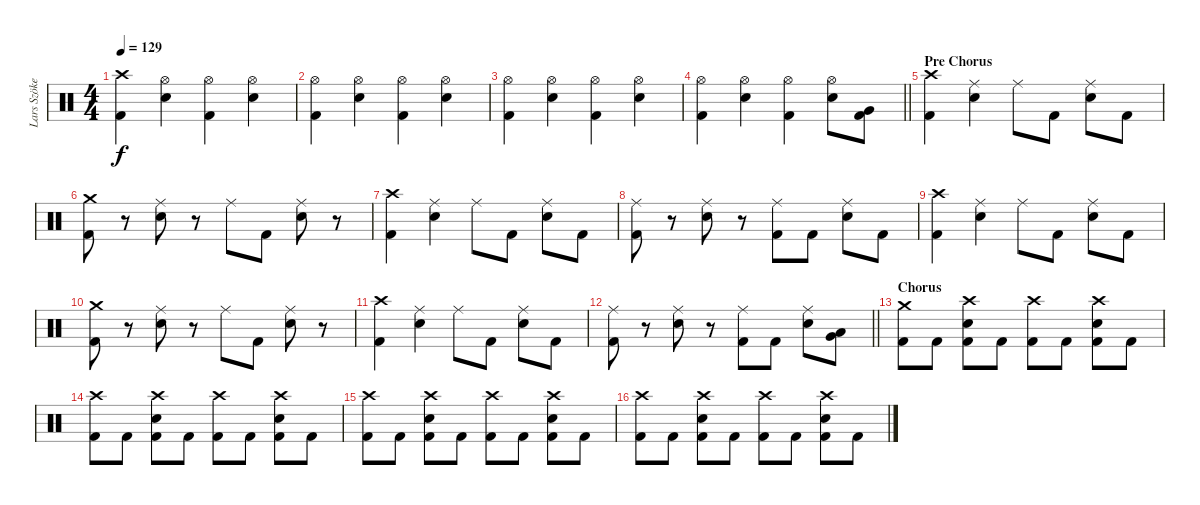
\track ("Lars Szöke" "Lars Szöke") {instrument percussion}
\staff {score}
\articulation defaults
\ts (4 4)
\tempo 129
\clef neutral
\ks c
("Crash high (hit)" "Kick (hit) 2").4{dy f} ("Hi-Hat (open)" "Snare (hit) 2").4 ("Hi-Hat (open)" "Kick (hit) 2").4 ("Hi-Hat (open)" "Snare (hit) 2").4 |
("Hi-Hat (open)" "Kick (hit) 2").4 ("Hi-Hat (open)" "Snare (hit) 2").4 ("Hi-Hat (open)" "Kick (hit) 2").4 ("Hi-Hat (open)" "Snare (hit) 2").4 |
("Hi-Hat (open)" "Kick (hit) 2").4 ("Hi-Hat (open)" "Snare (hit) 2").4 ("Hi-Hat (open)" "Kick (hit) 2").4 ("Hi-Hat (open)" "Snare (hit) 2").4 |
\barLineRight lightlight
("Hi-Hat (open)" "Kick (hit) 2").4 ("Hi-Hat (open)" "Snare (hit) 2").4 ("Hi-Hat (open)" "Kick (hit) 2").4 ("Hi-Hat (open)" "Snare (hit) 2").8 ("Very Low Tom (hit)" "Kick (hit) 2").8 |
\section ("" "Pre Chorus")
("Crash high (hit)" "Kick (hit) 2").4 ("Ride (middle)" "Snare (hit) 2").4 "Ride (middle)".8 "Kick (hit) 2".8 ("Ride (middle)" "Snare (hit) 2").8 "Kick (hit) 2".8 |
("Crash medium (hit)" "Kick (hit) 2").8 r.8 ("Ride (middle)" "Snare (hit) 2").8 r.8 "Ride (middle)".8 "Kick (hit) 2".8 ("Ride (middle)" "Snare (hit) 2").8 r.8 |
("Crash high (hit)" "Kick (hit) 2").4 ("Ride (middle)" "Snare (hit) 2").4 "Ride (middle)".8 "Kick (hit) 2".8 ("Ride (middle)" "Snare (hit) 2").8 "Kick (hit) 2".8 |
("Ride (middle)" "Kick (hit) 2").8 r.8 ("Ride (middle)" "Snare (hit) 2").8 r.8 ("Ride (middle)" "Kick (hit) 2").8 "Kick (hit) 2".8 ("Ride (middle)" "Snare (hit) 2").8 "Kick (hit) 2".8 |
("Crash high (hit)" "Kick (hit) 2").4 ("Ride (middle)" "Snare (hit) 2").4 "Ride (middle)".8 "Kick (hit) 2".8 ("Ride (middle)" "Snare (hit) 2").8 "Kick (hit) 2".8 |
("Crash medium (hit)" "Kick (hit) 2").8 r.8 ("Ride (middle)" "Snare (hit) 2").8 r.8 "Ride (middle)".8 "Kick (hit) 2".8 ("Ride (middle)" "Snare (hit) 2").8 r.8 |
("Crash high (hit)" "Kick (hit) 2").4 ("Ride (middle)" "Snare (hit) 2").4 "Ride (middle)".8 "Kick (hit) 2".8 ("Ride (middle)" "Snare (hit) 2").8 "Kick (hit) 2".8 |
\barLineRight lightlight
("Ride (middle)" "Kick (hit) 2").8 r.8 ("Ride (middle)" "Snare (hit) 2").8 r.8 ("Ride (middle)" "Kick (hit) 2").8 "Kick (hit) 2".8 ("Ride (middle)" "Snare (hit) 2").8 ("Very Low Tom (hit)" "Low Floor Tom (hit)").8 |
\section ("" "Chorus")
("Crash medium (hit)" "Kick (hit) 2").8 "Kick (hit) 2".8 ("Crash high (hit)" "Snare (hit) 2" "Kick (hit) 2").8 "Kick (hit) 2".8 ("Crash high (hit)" "Kick (hit) 2").8 "Kick (hit) 2".8 ("Crash high (hit)" "Snare (hit) 2" "Kick (hit) 2").8 "Kick (hit) 2".8 |
("Crash high (hit)" "Kick (hit) 2").8 "Kick (hit) 2".8 ("Crash high (hit)" "Snare (hit) 2" "Kick (hit) 2").8 "Kick (hit) 2".8 ("Crash high (hit)" "Kick (hit) 2").8 "Kick (hit) 2".8 ("Crash high (hit)" "Snare (hit) 2" "Kick (hit) 2").8 "Kick (hit) 2".8 |
("Crash high (hit)" "Kick (hit) 2").8 "Kick (hit) 2".8 ("Crash high (hit)" "Snare (hit) 2" "Kick (hit) 2").8 "Kick (hit) 2".8 ("Crash high (hit)" "Kick (hit) 2").8 "Kick (hit) 2".8 ("Crash high (hit)" "Snare (hit) 2" "Kick (hit) 2").8 "Kick (hit) 2".8 |
("Crash high (hit)" "Kick (hit) 2").8 "Kick (hit) 2".8 ("Crash high (hit)" "Snare (hit) 2" "Kick (hit) 2").8 "Kick (hit) 2".8 ("Crash high (hit)" "Kick (hit) 2").8 "Kick (hit) 2".8 ("Crash high (hit)" "Snare (hit) 2" "Kick (hit) 2").8 "Kick (hit) 2".8
